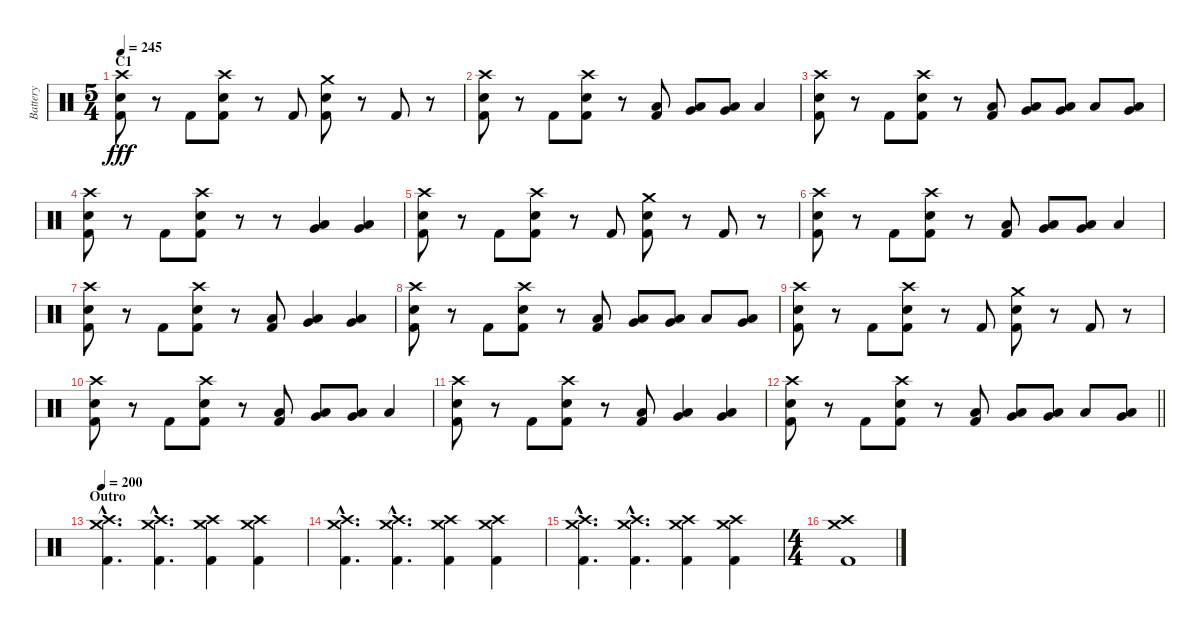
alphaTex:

\track ("Battery" "Battery") {instrument percussion}
\staff {score}
\articulation defaults
\ts (5 4)
\section ("" "C1")
\tempo 245
\clef neutral
\ks c
("Crash high (hit)" "Electric Snare (hit)" "Kick (hit) 2").8{dy fff} r.8 "Kick (hit) 2".8 ("Crash high (hit)" "Electric Snare (hit)" "Kick (hit) 2").8 r.8 "Kick (hit) 2".8 ("Crash medium (hit)" "Electric Snare (hit)" "Kick (hit) 2").8 r.8 "Kick (hit) 2".8 r.8 |
("Crash high (hit)" "Electric Snare (hit)" "Kick (hit) 2").8 r.8 "Kick (hit) 2".8 ("Crash high (hit)" "Electric Snare (hit)" "Kick (hit) 2").8 r.8 ("Low Floor Tom (hit)" "Kick (hit) 2").8 ("Low Tom (hit)" "Very Low Tom (hit)").8 ("Very Low Tom (hit)" "Low Floor Tom (hit)").8 "Low Floor Tom (hit)".4 |
("Crash high (hit)" "Electric Snare (hit)" "Kick (hit) 2").8 r.8 "Kick (hit) 2".8 ("Crash high (hit)" "Electric Snare (hit)" "Kick (hit) 2").8 r.8 ("Low Floor Tom (hit)" "Kick (hit) 2").8 ("Low Tom (hit)" "Very Low Tom (hit)").8 ("Very Low Tom (hit)" "Low Floor Tom (hit)").8 "Low Floor Tom (hit)".8 ("Very Low Tom (hit)" "Low Floor Tom (hit)").8 |
("Crash high (hit)" "Electric Snare (hit)" "Kick (hit) 2").8 r.8 "Kick (hit) 2".8 ("Crash high (hit)" "Electric Snare (hit)" "Kick (hit) 2").8 r.8 r.8 ("Very Low Tom (hit)" "Low Floor Tom (hit)").4 ("Very Low Tom (hit)" "Low Floor Tom (hit)").4 |
("Crash high (hit)" "Electric Snare (hit)" "Kick (hit) 2").8 r.8 "Kick (hit) 2".8 ("Crash high (hit)" "Electric Snare (hit)" "Kick (hit) 2").8 r.8 "Kick (hit) 2".8 ("Crash medium (hit)" "Electric Snare (hit)" "Kick (hit) 2").8 r.8 "Kick (hit) 2".8 r.8 |
("Crash high (hit)" "Electric Snare (hit)" "Kick (hit) 2").8 r.8 "Kick (hit) 2".8 ("Crash high (hit)" "Electric Snare (hit)" "Kick (hit) 2").8 r.8 ("Low Floor Tom (hit)" "Kick (hit) 2").8 ("Low Tom (hit)" "Very Low Tom (hit)").8 ("Very Low Tom (hit)" "Low Floor Tom (hit)").8 "Low Floor Tom (hit)".4 |
("Crash high (hit)" "Electric Snare (hit)" "Kick (hit) 2").8 r.8 "Kick (hit) 2".8 ("Crash high (hit)" "Electric Snare (hit)" "Kick (hit) 2").8 r.8 ("Low Floor Tom (hit)" "Kick (hit) 2").8 ("Very Low Tom (hit)" "Low Floor Tom (hit)").4 ("Very Low Tom (hit)" "Low Floor Tom (hit)").4 |
("Crash high (hit)" "Electric Snare (hit)" "Kick (hit) 2").8 r.8 "Kick (hit) 2".8 ("Crash high (hit)" "Electric Snare (hit)" "Kick (hit) 2").8 r.8 ("Low Floor Tom (hit)" "Kick (hit) 2").8 ("Low Tom (hit)" "Very Low Tom (hit)").8 ("Very Low Tom (hit)" "Low Floor Tom (hit)").8 "Low Floor Tom (hit)".8 ("Very Low Tom (hit)" "Low Floor Tom (hit)").8 |
("Crash high (hit)" "Electric Snare (hit)" "Kick (hit) 2").8 r.8 "Kick (hit) 2".8 ("Crash high (hit)" "Electric Snare (hit)" "Kick (hit) 2").8 r.8 "Kick (hit) 2".8 ("Crash medium (hit)" "Electric Snare (hit)" "Kick (hit) 2").8 r.8 "Kick (hit) 2".8 r.8 |
("Crash high (hit)" "Electric Snare (hit)" "Kick (hit) 2").8 r.8 "Kick (hit) 2".8 ("Crash high (hit)" "Electric Snare (hit)" "Kick (hit) 2").8 r.8 ("Low Floor Tom (hit)" "Kick (hit) 2").8 ("Low Tom (hit)" "Very Low Tom (hit)").8 ("Very Low Tom (hit)" "Low Floor Tom (hit)").8 "Low Floor Tom (hit)".4 |
("Crash high (hit)" "Electric Snare (hit)" "Kick (hit) 2").8 r.8 "Kick (hit) 2".8 ("Crash high (hit)" "Electric Snare (hit)" "Kick (hit) 2").8 r.8 ("Low Floor Tom (hit)" "Kick (hit) 2").8 ("Very Low Tom (hit)" "Low Floor Tom (hit)").4 ("Very Low Tom (hit)" "Low Floor Tom (hit)").4 |
\barLineRight lightlight
("Crash high (hit)" "Electric Snare (hit)" "Kick (hit) 2").8 r.8 "Kick (hit) 2".8 ("Crash high (hit)" "Electric Snare (hit)" "Kick (hit) 2").8 r.8 ("Low Floor Tom (hit)" "Kick (hit) 2").8 ("Low Tom (hit)" "Very Low Tom (hit)").8 ("Very Low Tom (hit)" "Low Floor Tom (hit)").8 "Low Floor Tom (hit)".8 ("Very Low Tom (hit)" "Low Floor Tom (hit)").8 |
\section ("" "Outro")
\tempo 200
("Crash high (hit)"{hac} "Crash medium (hit)"{hac} "Kick (hit) 2"{hac}).4{d} ("Crash high (hit)"{hac} "Crash medium (hit)"{hac} "Kick (hit) 2"{hac}).4{d} ("Crash high (hit)" "Crash medium (hit)" "Kick (hit) 2").4 ("Crash high (hit)" "Crash medium (hit)" "Kick (hit) 2").4 |
("Crash high (hit)"{hac} "Crash medium (hit)"{hac} "Kick (hit) 2"{hac}).4{d} ("Crash high (hit)"{hac} "Crash medium (hit)"{hac} "Kick (hit) 2"{hac}).4{d} ("Crash high (hit)" "Crash medium (hit)" "Kick (hit) 2").4 ("Crash high (hit)" "Crash medium (hit)" "Kick (hit) 2").4 |
("Crash high (hit)"{hac} "Crash medium (hit)"{hac} "Kick (hit) 2"{hac}).4{d} ("Crash high (hit)"{hac} "Crash medium (hit)"{hac} "Kick (hit) 2"{hac}).4{d} ("Crash high (hit)" "Crash medium (hit)" "Kick (hit) 2").4 ("Crash high (hit)" "Crash medium (hit)" "Kick (hit) 2").4 |
\ts (4 4)
("Crash high (hit)" "Crash medium (hit)" "Kick (hit) 2").1
